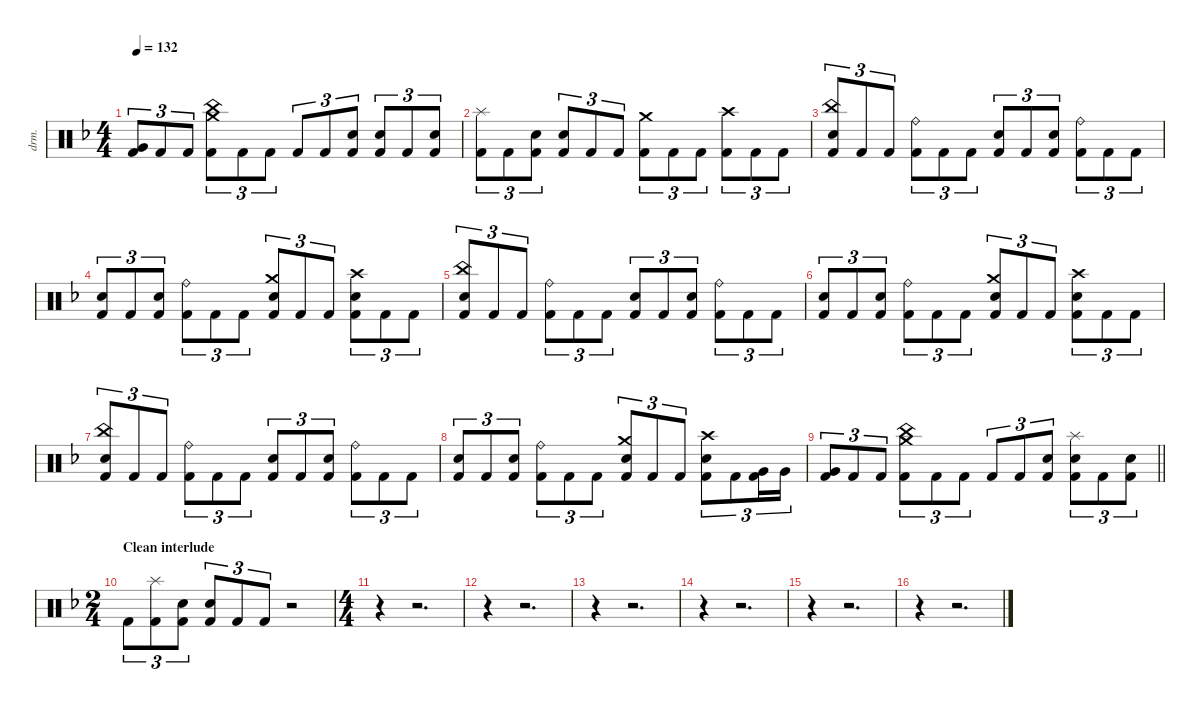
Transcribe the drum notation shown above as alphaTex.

\defaultSystemsLayout 4
\hideDynamics
\bracketExtendMode nobrackets
\otherSystemsTrackNameOrientation horizontal
\track ("Drums" "drm.") {instrument percussion}
\staff {score}
\articulation defaults
\ts (4 4)
\tempo 132
\clef neutral
\ks dminor
("Very Low Tom (hit)"{acc forcenatural} "Kick (hit) 2"{acc forcenatural}).8{tu (3 2) dy f} "Kick (hit) 2"{acc forcenatural}.8{tu (3 2)} "Kick (hit) 2"{acc forcenatural}.8{tu (3 2)} ("China (hit)"{acc forcenatural} "Crash medium (hit)"{acc forcenatural} "Kick (hit) 2"{acc forcenatural}).8{tu (3 2)} "Kick (hit) 2"{acc forcenatural}.8{tu (3 2)} "Kick (hit) 2"{acc forcenatural}.8{tu (3 2)} "Kick (hit) 2"{acc forcenatural}.8{tu (3 2)} "Kick (hit) 2"{acc forcenatural}.8{tu (3 2)} ("Snare (hit) 2"{acc forcenatural} "Kick (hit) 2"{acc forcenatural}).8{tu (3 2)} ("Snare (hit) 2"{acc forcenatural} "Kick (hit) 2"{acc forcenatural}).8{tu (3 2)} "Kick (hit) 2"{acc forcenatural}.8{tu (3 2)} ("Snare (hit) 2"{acc forcenatural} "Kick (hit) 2"{acc forcenatural}).8{tu (3 2)} |
("Splash (hit)"{acc forcenatural} "Kick (hit) 2"{acc forcenatural}).8{tu (3 2)} "Kick (hit) 2"{acc forcenatural}.8{tu (3 2)} ("Snare (hit) 2"{acc forcenatural} "Kick (hit) 2"{acc forcenatural}).8{tu (3 2)} ("Snare (hit) 2"{acc forcenatural} "Kick (hit) 2"{acc forcenatural}).8{tu (3 2)} "Kick (hit) 2"{acc forcenatural}.8{tu (3 2)} "Kick (hit) 2"{acc forcenatural}.8{tu (3 2)} ("Crash medium (hit)"{acc forcenatural} "Kick (hit) 2"{acc forcenatural}).8{tu (3 2)} "Kick (hit) 2"{acc forcenatural}.8{tu (3 2)} "Kick (hit) 2"{acc forcenatural}.8{tu (3 2)} ("Crash high (hit)"{acc forcenatural} "Kick (hit) 2"{acc forcenatural}).8{tu (3 2)} "Kick (hit) 2"{acc forcenatural}.8{tu (3 2)} "Kick (hit) 2"{acc forcenatural}.8{tu (3 2)} |
("China (hit)"{acc forcenatural} "Snare (hit) 2"{acc forcenatural} "Kick (hit) 2"{acc forcenatural}).8{tu (3 2)} "Kick (hit) 2"{acc forcenatural}.8{tu (3 2)} "Kick (hit) 2"{acc forcenatural}.8{tu (3 2)} ("Ride (bell)"{acc forcenatural} "Kick (hit) 2"{acc forcenatural}).8{tu (3 2)} "Kick (hit) 2"{acc forcenatural}.8{tu (3 2)} "Kick (hit) 2"{acc forcenatural}.8{tu (3 2)} ("Snare (hit) 2"{acc forcenatural} "Kick (hit) 2"{acc forcenatural}).8{tu (3 2)} "Kick (hit) 2"{acc forcenatural}.8{tu (3 2)} ("Snare (hit) 2"{acc forcenatural} "Kick (hit) 2"{acc forcenatural}).8{tu (3 2)} ("Ride (bell)"{acc forcenatural} "Kick (hit) 2"{acc forcenatural}).8{tu (3 2)} "Kick (hit) 2"{acc forcenatural}.8{tu (3 2)} "Kick (hit) 2"{acc forcenatural}.8{tu (3 2)} |
("Snare (hit) 2"{acc forcenatural} "Kick (hit) 2"{acc forcenatural}).8{tu (3 2)} "Kick (hit) 2"{acc forcenatural}.8{tu (3 2)} ("Snare (hit) 2"{acc forcenatural} "Kick (hit) 2"{acc forcenatural}).8{tu (3 2)} ("Ride (bell)"{acc forcenatural} "Kick (hit) 2"{acc forcenatural}).8{tu (3 2)} "Kick (hit) 2"{acc forcenatural}.8{tu (3 2)} "Kick (hit) 2"{acc forcenatural}.8{tu (3 2)} ("Crash medium (hit)"{acc forcenatural} "Snare (hit) 2"{acc forcenatural} "Kick (hit) 2"{acc forcenatural}).8{tu (3 2)} "Kick (hit) 2"{acc forcenatural}.8{tu (3 2)} "Kick (hit) 2"{acc forcenatural}.8{tu (3 2)} ("Crash high (hit)"{acc forcenatural} "Snare (hit) 2"{acc forcenatural} "Kick (hit) 2"{acc forcenatural}).8{tu (3 2)} "Kick (hit) 2"{acc forcenatural}.8{tu (3 2)} "Kick (hit) 2"{acc forcenatural}.8{tu (3 2)} |
("China (hit)"{acc forcenatural} "Snare (hit) 2"{acc forcenatural} "Kick (hit) 2"{acc forcenatural}).8{tu (3 2)} "Kick (hit) 2"{acc forcenatural}.8{tu (3 2)} "Kick (hit) 2"{acc forcenatural}.8{tu (3 2)} ("Ride (bell)"{acc forcenatural} "Kick (hit) 2"{acc forcenatural}).8{tu (3 2)} "Kick (hit) 2"{acc forcenatural}.8{tu (3 2)} "Kick (hit) 2"{acc forcenatural}.8{tu (3 2)} ("Snare (hit) 2"{acc forcenatural} "Kick (hit) 2"{acc forcenatural}).8{tu (3 2)} "Kick (hit) 2"{acc forcenatural}.8{tu (3 2)} ("Snare (hit) 2"{acc forcenatural} "Kick (hit) 2"{acc forcenatural}).8{tu (3 2)} ("Ride (bell)"{acc forcenatural} "Kick (hit) 2"{acc forcenatural}).8{tu (3 2)} "Kick (hit) 2"{acc forcenatural}.8{tu (3 2)} "Kick (hit) 2"{acc forcenatural}.8{tu (3 2)} |
("Snare (hit) 2"{acc forcenatural} "Kick (hit) 2"{acc forcenatural}).8{tu (3 2)} "Kick (hit) 2"{acc forcenatural}.8{tu (3 2)} ("Snare (hit) 2"{acc forcenatural} "Kick (hit) 2"{acc forcenatural}).8{tu (3 2)} ("Ride (bell)"{acc forcenatural} "Kick (hit) 2"{acc forcenatural}).8{tu (3 2)} "Kick (hit) 2"{acc forcenatural}.8{tu (3 2)} "Kick (hit) 2"{acc forcenatural}.8{tu (3 2)} ("Crash medium (hit)"{acc forcenatural} "Snare (hit) 2"{acc forcenatural} "Kick (hit) 2"{acc forcenatural}).8{tu (3 2)} "Kick (hit) 2"{acc forcenatural}.8{tu (3 2)} "Kick (hit) 2"{acc forcenatural}.8{tu (3 2)} ("Crash high (hit)"{acc forcenatural} "Snare (hit) 2"{acc forcenatural} "Kick (hit) 2"{acc forcenatural}).8{tu (3 2)} "Kick (hit) 2"{acc forcenatural}.8{tu (3 2)} "Kick (hit) 2"{acc forcenatural}.8{tu (3 2)} |
("China (hit)"{acc forcenatural} "Snare (hit) 2"{acc forcenatural} "Kick (hit) 2"{acc forcenatural}).8{tu (3 2)} "Kick (hit) 2"{acc forcenatural}.8{tu (3 2)} "Kick (hit) 2"{acc forcenatural}.8{tu (3 2)} ("Ride (bell)"{acc forcenatural} "Kick (hit) 2"{acc forcenatural}).8{tu (3 2)} "Kick (hit) 2"{acc forcenatural}.8{tu (3 2)} "Kick (hit) 2"{acc forcenatural}.8{tu (3 2)} ("Snare (hit) 2"{acc forcenatural} "Kick (hit) 2"{acc forcenatural}).8{tu (3 2)} "Kick (hit) 2"{acc forcenatural}.8{tu (3 2)} ("Snare (hit) 2"{acc forcenatural} "Kick (hit) 2"{acc forcenatural}).8{tu (3 2)} ("Ride (bell)"{acc forcenatural} "Kick (hit) 2"{acc forcenatural}).8{tu (3 2)} "Kick (hit) 2"{acc forcenatural}.8{tu (3 2)} "Kick (hit) 2"{acc forcenatural}.8{tu (3 2)} |
("Snare (hit) 2"{acc forcenatural} "Kick (hit) 2"{acc forcenatural}).8{tu (3 2)} "Kick (hit) 2"{acc forcenatural}.8{tu (3 2)} ("Snare (hit) 2"{acc forcenatural} "Kick (hit) 2"{acc forcenatural}).8{tu (3 2)} ("Ride (bell)"{acc forcenatural} "Kick (hit) 2"{acc forcenatural}).8{tu (3 2)} "Kick (hit) 2"{acc forcenatural}.8{tu (3 2)} "Kick (hit) 2"{acc forcenatural}.8{tu (3 2)} ("Crash medium (hit)"{acc forcenatural} "Snare (hit) 2"{acc forcenatural} "Kick (hit) 2"{acc forcenatural}).8{tu (3 2)} "Kick (hit) 2"{acc forcenatural}.8{tu (3 2)} "Kick (hit) 2"{acc forcenatural}.8{tu (3 2)} ("Crash high (hit)"{acc forcenatural} "Snare (hit) 2"{acc forcenatural} "Kick (hit) 2"{acc forcenatural}).8{tu (3 2)} "Kick (hit) 2"{acc forcenatural}.8{tu (3 2)} ("Very Low Tom (hit)"{acc forcenatural} "Kick (hit) 2"{acc forcenatural}).16{tu (3 2)} "Very Low Tom (hit)"{acc forcenatural}.16{tu (3 2)} |
\barLineRight lightlight
("Very Low Tom (hit)"{acc forcenatural} "Kick (hit) 2"{acc forcenatural}).8{tu (3 2)} "Kick (hit) 2"{acc forcenatural}.8{tu (3 2)} "Kick (hit) 2"{acc forcenatural}.8{tu (3 2)} ("China (hit)"{acc forcenatural} "Crash medium (hit)"{acc forcenatural} "Kick (hit) 2"{acc forcenatural}).8{tu (3 2)} "Kick (hit) 2"{acc forcenatural}.8{tu (3 2)} "Kick (hit) 2"{acc forcenatural}.8{tu (3 2)} "Kick (hit) 2"{acc forcenatural}.8{tu (3 2)} "Kick (hit) 2"{acc forcenatural}.8{tu (3 2)} ("Snare (hit) 2"{acc forcenatural} "Kick (hit) 2"{acc forcenatural}).8{tu (3 2)} ("Splash (hit)"{acc forcenatural} "Snare (hit) 2"{acc forcenatural} "Kick (hit) 2"{acc forcenatural}).8{tu (3 2)} "Kick (hit) 2"{acc forcenatural}.8{tu (3 2)} ("Snare (hit) 2"{acc forcenatural} "Kick (hit) 2"{acc forcenatural}).8{tu (3 2)} |
\ts (2 4)
\beaming (8 2 2)
\section ("" "Clean interlude")
"Kick (hit) 2"{acc forcenatural}.8{tu (3 2)} ("Splash (hit)"{acc forcenatural} "Kick (hit) 2"{acc forcenatural}).8{tu (3 2)} ("Snare (hit) 2"{acc forcenatural} "Kick (hit) 2"{acc forcenatural}).8{tu (3 2)} ("Snare (hit) 2"{acc forcenatural} "Kick (hit) 2"{acc forcenatural}).8{tu (3 2)} "Kick (hit) 2"{acc forcenatural}.8{tu (3 2)} "Kick (hit) 2"{acc forcenatural}.8{tu (3 2)} r.2 |
\ts (4 4)
\beaming (8 2 2 2 2)
r.4 r.2{d} |
r.4 r.2{d} |
r.4 r.2{d} |
r.4 r.2{d} |
r.4 r.2{d} |
r.4 r.2{d}
